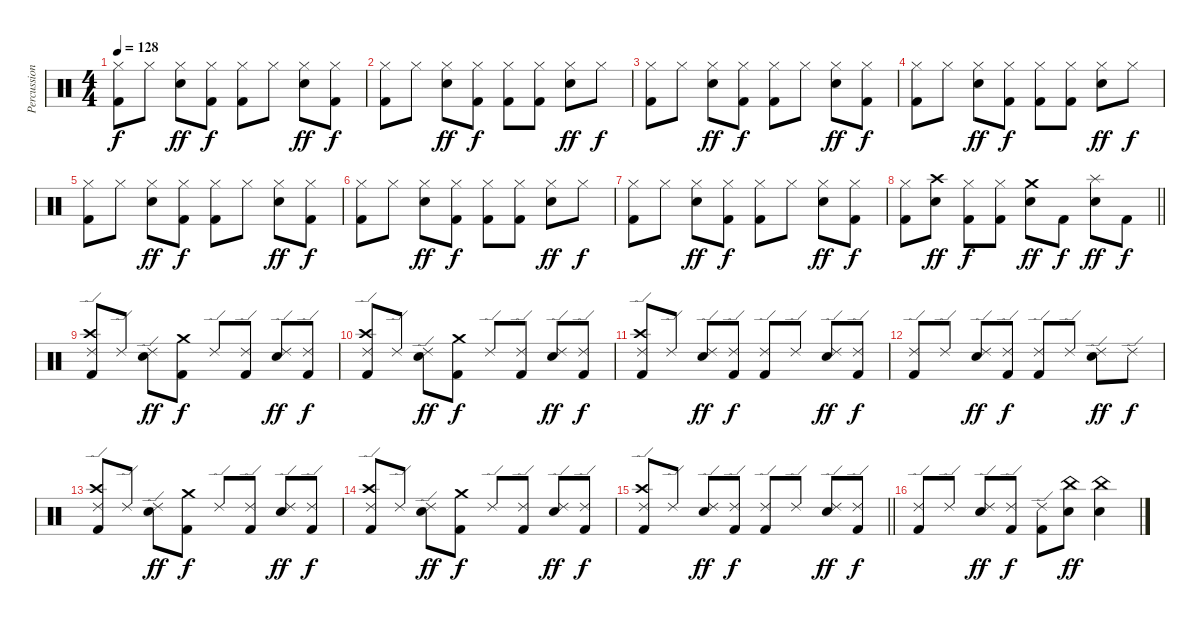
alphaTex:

\track ("Percussion" "Percussion") {instrument percussion}
\staff {score}
\articulation defaults
\ts (4 4)
\tempo 128
\clef neutral
\ks c
("Hi-Hat (closed)" "Kick (hit) 2").8{dy f} "Hi-Hat (closed)".8 ("Hi-Hat (closed)" "Snare (hit) 2").8{dy ff} ("Hi-Hat (closed)" "Kick (hit) 2").8{dy f} ("Hi-Hat (closed)" "Kick (hit) 2").8 "Hi-Hat (closed)".8 ("Hi-Hat (closed)" "Snare (hit) 2").8{dy ff} ("Hi-Hat (closed)" "Kick (hit) 2").8{dy f} |
("Hi-Hat (closed)" "Kick (hit) 2").8 "Hi-Hat (closed)".8 ("Hi-Hat (closed)" "Snare (hit) 2").8{dy ff} ("Hi-Hat (closed)" "Kick (hit) 2").8{dy f} ("Hi-Hat (closed)" "Kick (hit) 2").8 ("Hi-Hat (closed)" "Kick (hit) 2").8 ("Hi-Hat (closed)" "Snare (hit) 2").8{dy ff} "Hi-Hat (closed)".8{dy f} |
("Hi-Hat (closed)" "Kick (hit) 2").8 "Hi-Hat (closed)".8 ("Hi-Hat (closed)" "Snare (hit) 2").8{dy ff} ("Hi-Hat (closed)" "Kick (hit) 2").8{dy f} ("Hi-Hat (closed)" "Kick (hit) 2").8 "Hi-Hat (closed)".8 ("Hi-Hat (closed)" "Snare (hit) 2").8{dy ff} ("Hi-Hat (closed)" "Kick (hit) 2").8{dy f} |
("Hi-Hat (closed)" "Kick (hit) 2").8 "Hi-Hat (closed)".8 ("Hi-Hat (closed)" "Snare (hit) 2").8{dy ff} ("Hi-Hat (closed)" "Kick (hit) 2").8{dy f} ("Hi-Hat (closed)" "Kick (hit) 2").8 ("Hi-Hat (closed)" "Kick (hit) 2").8 ("Hi-Hat (closed)" "Snare (hit) 2").8{dy ff} "Hi-Hat (closed)".8{dy f} |
("Hi-Hat (closed)" "Kick (hit) 2").8 "Hi-Hat (closed)".8 ("Hi-Hat (closed)" "Snare (hit) 2").8{dy ff} ("Hi-Hat (closed)" "Kick (hit) 2").8{dy f} ("Hi-Hat (closed)" "Kick (hit) 2").8 "Hi-Hat (closed)".8 ("Hi-Hat (closed)" "Snare (hit) 2").8{dy ff} ("Hi-Hat (closed)" "Kick (hit) 2").8{dy f} |
("Hi-Hat (closed)" "Kick (hit) 2").8 "Hi-Hat (closed)".8 ("Hi-Hat (closed)" "Snare (hit) 2").8{dy ff} ("Hi-Hat (closed)" "Kick (hit) 2").8{dy f} ("Hi-Hat (closed)" "Kick (hit) 2").8 ("Hi-Hat (closed)" "Kick (hit) 2").8 ("Hi-Hat (closed)" "Snare (hit) 2").8{dy ff} "Hi-Hat (closed)".8{dy f} |
("Hi-Hat (closed)" "Kick (hit) 2").8 "Hi-Hat (closed)".8 ("Hi-Hat (closed)" "Snare (hit) 2").8{dy ff} ("Hi-Hat (closed)" "Kick (hit) 2").8{dy f} ("Hi-Hat (closed)" "Kick (hit) 2").8 "Hi-Hat (closed)".8 ("Hi-Hat (closed)" "Snare (hit) 2").8{dy ff} ("Hi-Hat (closed)" "Kick (hit) 2").8{dy f} |
\barLineRight lightlight
("Hi-Hat (closed)" "Kick (hit) 2").8 ("Crash high (hit)" "Snare (hit) 2").8{dy ff} ("Hi-Hat (closed)" "Kick (hit) 2").8{dy f} ("Hi-Hat (closed)" "Kick (hit) 2").8 ("Crash medium (hit)" "Snare (hit) 2").8{dy ff} "Kick (hit) 2".8{dy f} ("Splash (hit)" "Snare (hit) 2").8{dy ff} "Kick (hit) 2".8{dy f} |
("Crash high (hit)" "Ride (edge) 2" "Kick (hit) 2").8 "Ride (edge) 2".8 ("Ride (edge) 2" "Snare (hit) 2").8{dy ff} ("Crash medium (hit)" "Kick (hit) 2").8{dy f} "Ride (edge) 2".8 ("Ride (edge) 2" "Kick (hit) 2").8 ("Ride (edge) 2" "Snare (hit) 2").8{dy ff} ("Ride (edge) 2" "Kick (hit) 2").8{dy f} |
("Crash high (hit)" "Ride (edge) 2" "Kick (hit) 2").8 "Ride (edge) 2".8 ("Ride (edge) 2" "Snare (hit) 2").8{dy ff} ("Crash medium (hit)" "Kick (hit) 2").8{dy f} "Ride (edge) 2".8 ("Ride (edge) 2" "Kick (hit) 2").8 ("Ride (edge) 2" "Snare (hit) 2").8{dy ff} ("Ride (edge) 2" "Kick (hit) 2").8{dy f} |
("Crash high (hit)" "Ride (edge) 2" "Kick (hit) 2").8 "Ride (edge) 2".8 ("Ride (edge) 2" "Snare (hit) 2").8{dy ff} ("Ride (edge) 2" "Kick (hit) 2").8{dy f} ("Ride (edge) 2" "Kick (hit) 2").8 "Ride (edge) 2".8 ("Ride (edge) 2" "Snare (hit) 2").8{dy ff} ("Ride (edge) 2" "Kick (hit) 2").8{dy f} |
("Ride (edge) 2" "Kick (hit) 2").8 "Ride (edge) 2".8 ("Ride (edge) 2" "Snare (hit) 2").8{dy ff} ("Ride (edge) 2" "Kick (hit) 2").8{dy f} ("Ride (edge) 2" "Kick (hit) 2").8 "Ride (edge) 2".8 ("Ride (edge) 2" "Snare (hit) 2").8{dy ff} "Ride (edge) 2".8{dy f} |
("Crash high (hit)" "Ride (edge) 2" "Kick (hit) 2").8 "Ride (edge) 2".8 ("Ride (edge) 2" "Snare (hit) 2").8{dy ff} ("Crash medium (hit)" "Kick (hit) 2").8{dy f} "Ride (edge) 2".8 ("Ride (edge) 2" "Kick (hit) 2").8 ("Ride (edge) 2" "Snare (hit) 2").8{dy ff} ("Ride (edge) 2" "Kick (hit) 2").8{dy f} |
("Crash high (hit)" "Ride (edge) 2" "Kick (hit) 2").8 "Ride (edge) 2".8 ("Ride (edge) 2" "Snare (hit) 2").8{dy ff} ("Crash medium (hit)" "Kick (hit) 2").8{dy f} "Ride (edge) 2".8 ("Ride (edge) 2" "Kick (hit) 2").8 ("Ride (edge) 2" "Snare (hit) 2").8{dy ff} ("Ride (edge) 2" "Kick (hit) 2").8{dy f} |
\barLineRight lightlight
("Crash high (hit)" "Ride (edge) 2" "Kick (hit) 2").8 "Ride (edge) 2".8 ("Ride (edge) 2" "Snare (hit) 2").8{dy ff} ("Ride (edge) 2" "Kick (hit) 2").8{dy f} ("Ride (edge) 2" "Kick (hit) 2").8 "Ride (edge) 2".8 ("Ride (edge) 2" "Snare (hit) 2").8{dy ff} ("Ride (edge) 2" "Kick (hit) 2").8{dy f} |
("Ride (edge) 2" "Kick (hit) 2").8 "Ride (edge) 2".8 ("Ride (edge) 2" "Snare (hit) 2").8{dy ff} ("Ride (edge) 2" "Kick (hit) 2").8{dy f} ("Ride (edge) 2" "Kick (hit) 2").8 ("China (hit)" "Snare (hit) 2").8{dy ff} ("China (hit)" "Snare (hit) 2").4
